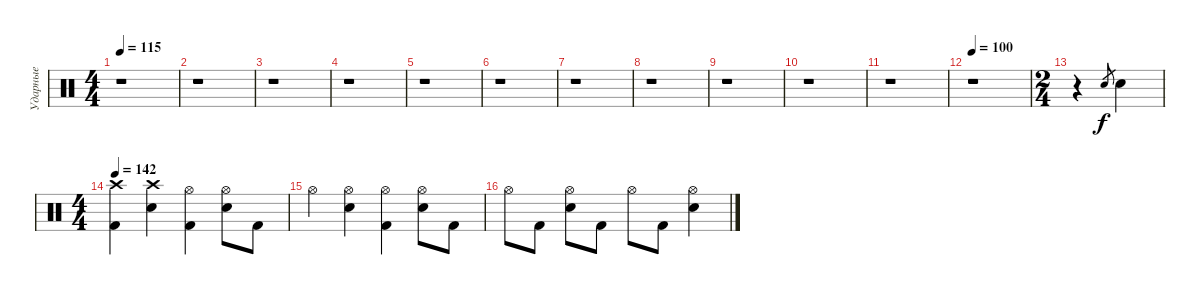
\track ("Ударные" "Ударные") {instrument percussion}
\staff {score}
\articulation defaults
\ts (4 4)
\tempo 115
\clef neutral
\ks c
r.1{dy f} |
r.1 |
r.1 |
r.1 |
r.1 |
r.1 |
r.1 |
r.1 |
r.1 |
r.1 |
r.1 |
\tempo 100
r.1 |
\ts (2 4)
r.4 "Snare (hit) 2".8{gr} "Snare (hit) 2".4 |
\ts (4 4)
\tempo 142
("Kick (hit) 2" "Crash high (hit)").4 ("Snare (hit) 2" "Crash high (hit)").4 ("Kick (hit) 2" "Hi-Hat (open)").4 ("Snare (hit) 2" "Hi-Hat (open)").8 "Kick (hit) 2".8 |
"Hi-Hat (open)".4 ("Snare (hit) 2" "Hi-Hat (open)").4 ("Kick (hit) 2" "Hi-Hat (open)").4 ("Snare (hit) 2" "Hi-Hat (open)").8 "Kick (hit) 2".8 |
"Hi-Hat (open)".8 "Kick (hit) 2".8 ("Snare (hit) 2" "Hi-Hat (open)").8 "Kick (hit) 2".8 "Hi-Hat (open)".8 "Kick (hit) 2".8 ("Snare (hit) 2" "Hi-Hat (open)").4
